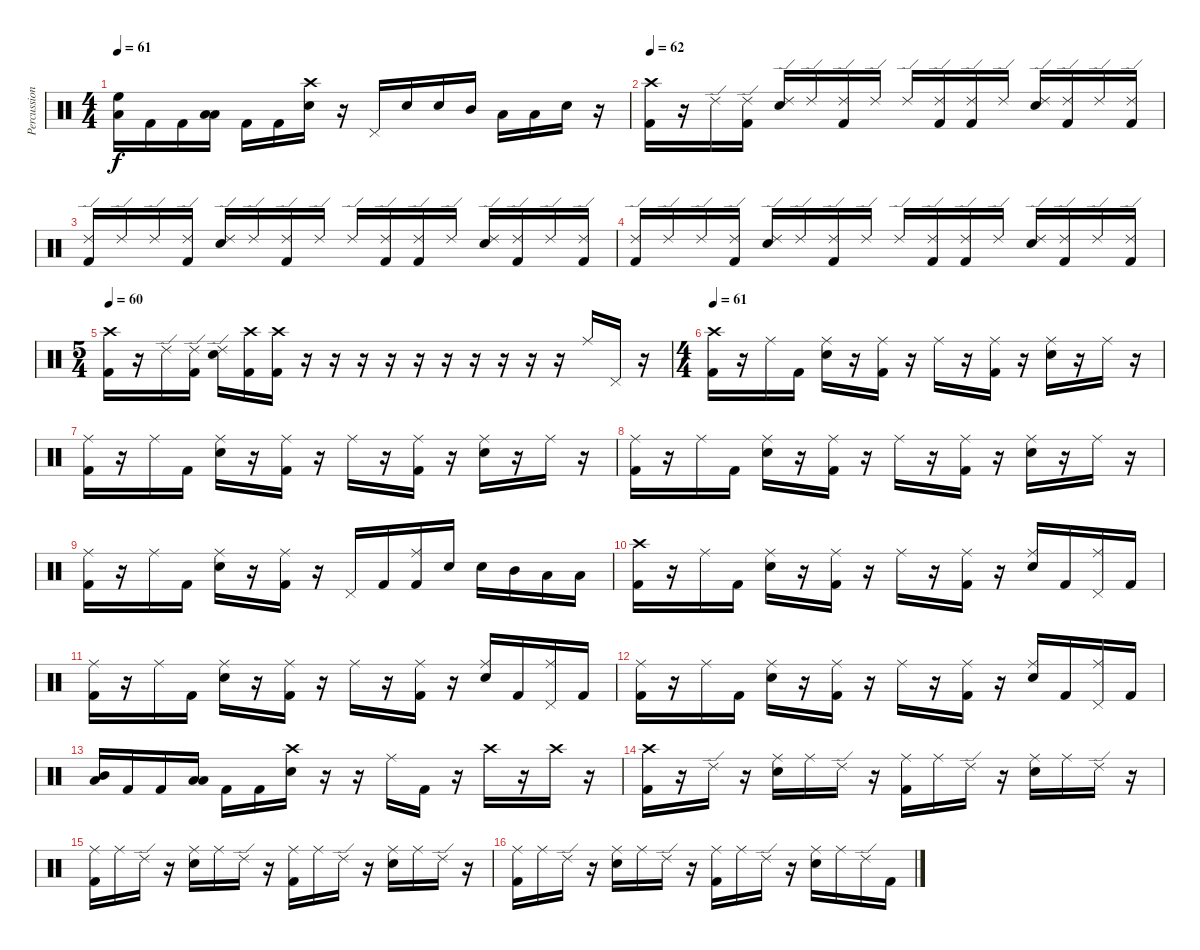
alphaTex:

\track ("Percussion" "Percussion") {instrument percussion}
\staff {score}
\articulation defaults
\ts (4 4)
\tempo 61
\clef neutral
\ks c
("High Floor Tom (hit)" "Low Tom (hit)").16{dy f} "Kick (hit) 2".16 "Kick (hit) 2".16 ("Low Tom (hit)" "Low Floor Tom (hit)").16 "Kick (hit) 2".16 "Kick (hit) 2".16 ("Crash high (hit)" "Snare (hit) 2").16 r.16 "Pedal Hi-Hat (hit)".16 "Snare (hit) 2".16 "Snare (hit) 2".16 "Mid Tom (hit)".16 "Low Tom (hit)".16 "Low Floor Tom (hit)".16 "Snare (hit) 2".16 r.16 |
\tempo 62
("Crash high (hit)" "Kick (hit) 2").16 r.16 "Ride (edge) 2".16 ("Ride (edge) 2" "Kick (hit) 2").16 ("Ride (edge) 2" "Snare (hit) 2").16 "Ride (edge) 2".16 ("Ride (edge) 2" "Kick (hit) 2").16 "Ride (edge) 2".16 "Ride (edge) 2".16 ("Ride (edge) 2" "Kick (hit) 2").16 ("Ride (edge) 2" "Kick (hit) 2").16 "Ride (edge) 2".16 ("Ride (edge) 2" "Snare (hit) 2").16 ("Ride (edge) 2" "Kick (hit) 2").16 "Ride (edge) 2".16 ("Ride (edge) 2" "Kick (hit) 2").16 |
("Ride (edge) 2" "Kick (hit) 2").16 "Ride (edge) 2".16 "Ride (edge) 2".16 ("Ride (edge) 2" "Kick (hit) 2").16 ("Ride (edge) 2" "Snare (hit) 2").16 "Ride (edge) 2".16 ("Ride (edge) 2" "Kick (hit) 2").16 "Ride (edge) 2".16 "Ride (edge) 2".16 ("Ride (edge) 2" "Kick (hit) 2").16 ("Ride (edge) 2" "Kick (hit) 2").16 "Ride (edge) 2".16 ("Ride (edge) 2" "Snare (hit) 2").16 ("Ride (edge) 2" "Kick (hit) 2").16 "Ride (edge) 2".16 ("Ride (edge) 2" "Kick (hit) 2").16 |
("Ride (edge) 2" "Kick (hit) 2").16 "Ride (edge) 2".16 "Ride (edge) 2".16 ("Ride (edge) 2" "Kick (hit) 2").16 ("Ride (edge) 2" "Snare (hit) 2").16 "Ride (edge) 2".16 ("Ride (edge) 2" "Kick (hit) 2").16 "Ride (edge) 2".16 "Ride (edge) 2".16 ("Ride (edge) 2" "Kick (hit) 2").16 ("Ride (edge) 2" "Kick (hit) 2").16 "Ride (edge) 2".16 ("Ride (edge) 2" "Snare (hit) 2").16 ("Ride (edge) 2" "Kick (hit) 2").16 "Ride (edge) 2".16 ("Ride (edge) 2" "Kick (hit) 2").16 |
\ts (5 4)
\tempo 60
("Crash high (hit)" "Kick (hit) 2").16 r.16 "Ride (edge) 2".16 ("Ride (edge) 2" "Kick (hit) 2").16 ("Ride (edge) 2" "Snare (hit) 2").16 ("Crash high (hit)" "Kick (hit) 2").16 ("Crash high (hit)" "Kick (hit) 2").16 r.16 r.16 r.16 r.16 r.16 r.16 r.16 r.16 r.16 r.16 "Ride (middle)".16 "Pedal Hi-Hat (hit)".16 r.16 |
\ts (4 4)
\tempo 61
("Crash high (hit)" "Kick (hit) 2").16 r.16 "Ride (middle)".16 "Kick (hit) 2".16 ("Ride (middle)" "Snare (hit) 2").16 r.16 ("Ride (middle)" "Kick (hit) 2").16 r.16 "Ride (middle)".16 r.16 ("Ride (middle)" "Kick (hit) 2").16 r.16 ("Ride (middle)" "Snare (hit) 2").16 r.16 "Ride (middle)".16 r.16 |
("Ride (middle)" "Kick (hit) 2").16 r.16 "Ride (middle)".16 "Kick (hit) 2".16 ("Ride (middle)" "Snare (hit) 2").16 r.16 ("Ride (middle)" "Kick (hit) 2").16 r.16 "Ride (middle)".16 r.16 ("Ride (middle)" "Kick (hit) 2").16 r.16 ("Ride (middle)" "Snare (hit) 2").16 r.16 "Ride (middle)".16 r.16 |
("Ride (middle)" "Kick (hit) 2").16 r.16 "Ride (middle)".16 "Kick (hit) 2".16 ("Ride (middle)" "Snare (hit) 2").16 r.16 ("Ride (middle)" "Kick (hit) 2").16 r.16 "Ride (middle)".16 r.16 ("Ride (middle)" "Kick (hit) 2").16 r.16 ("Ride (middle)" "Snare (hit) 2").16 r.16 "Ride (middle)".16 r.16 |
("Ride (middle)" "Kick (hit) 2").16 r.16 "Ride (middle)".16 "Kick (hit) 2".16 ("Ride (middle)" "Snare (hit) 2").16 r.16 ("Ride (middle)" "Kick (hit) 2").16 r.16 "Pedal Hi-Hat (hit)".16 "Kick (hit) 2".16 ("Ride (middle)" "Kick (hit) 2").16 "Snare (hit) 2".16 "Snare (hit) 2".16 "Mid Tom (hit)".16 "Low Tom (hit)".16 "Low Floor Tom (hit)".16 |
("Crash high (hit)" "Kick (hit) 2").16 r.16 "Ride (middle)".16 "Kick (hit) 2".16 ("Ride (middle)" "Snare (hit) 2").16 r.16 ("Ride (middle)" "Kick (hit) 2").16 r.16 "Ride (middle)".16 r.16 ("Ride (middle)" "Kick (hit) 2").16 r.16 ("Ride (middle)" "Snare (hit) 2").16 "Kick (hit) 2".16 ("Pedal Hi-Hat (hit)" "Ride (middle)").16 "Kick (hit) 2".16 |
("Ride (middle)" "Kick (hit) 2").16 r.16 "Ride (middle)".16 "Kick (hit) 2".16 ("Ride (middle)" "Snare (hit) 2").16 r.16 ("Ride (middle)" "Kick (hit) 2").16 r.16 "Ride (middle)".16 r.16 ("Ride (middle)" "Kick (hit) 2").16 r.16 ("Ride (middle)" "Snare (hit) 2").16 "Kick (hit) 2".16 ("Pedal Hi-Hat (hit)" "Ride (middle)").16 "Kick (hit) 2".16 |
("Ride (middle)" "Kick (hit) 2").16 r.16 "Ride (middle)".16 "Kick (hit) 2".16 ("Ride (middle)" "Snare (hit) 2").16 r.16 ("Ride (middle)" "Kick (hit) 2").16 r.16 "Ride (middle)".16 r.16 ("Ride (middle)" "Kick (hit) 2").16 r.16 ("Ride (middle)" "Snare (hit) 2").16 "Kick (hit) 2".16 ("Pedal Hi-Hat (hit)" "Ride (middle)").16 "Kick (hit) 2".16 |
("Mid Tom (hit)" "Low Tom (hit)").16 "Kick (hit) 2".16 "Kick (hit) 2".16 ("Low Tom (hit)" "Low Floor Tom (hit)").16 "Kick (hit) 2".16 "Kick (hit) 2".16 ("Crash high (hit)" "Snare (hit) 2").16 r.16 r.16 "Ride (middle)".16 "Kick (hit) 2".16 r.16 "Crash high (hit)".16 r.16 "Crash high (hit)".16 r.16 |
("Crash high (hit)" "Kick (hit) 2").16 r.16 "Ride (edge) 2".16 r.16 ("Ride (middle)" "Snare (hit) 2").16 "Ride (middle)".16 "Ride (edge) 2".16 r.16 ("Ride (middle)" "Kick (hit) 2").16 "Ride (middle)".16 "Ride (edge) 2".16 r.16 ("Ride (middle)" "Snare (hit) 2").16 "Ride (middle)".16 "Ride (edge) 2".16 r.16 |
("Ride (middle)" "Kick (hit) 2").16 "Ride (middle)".16 "Ride (edge) 2".16 r.16 ("Ride (middle)" "Snare (hit) 2").16 "Ride (middle)".16 "Ride (edge) 2".16 r.16 ("Ride (middle)" "Kick (hit) 2").16 "Ride (middle)".16 "Ride (edge) 2".16 r.16 ("Ride (middle)" "Snare (hit) 2").16 "Ride (middle)".16 "Ride (edge) 2".16 r.16 |
("Ride (middle)" "Kick (hit) 2").16 "Ride (middle)".16 "Ride (edge) 2".16 r.16 ("Ride (middle)" "Snare (hit) 2").16 "Ride (middle)".16 "Ride (edge) 2".16 r.16 ("Ride (middle)" "Kick (hit) 2").16 "Ride (middle)".16 "Ride (edge) 2".16 r.16 ("Ride (middle)" "Snare (hit) 2").16 "Ride (middle)".16 "Ride (edge) 2".16 "Kick (hit) 2".16
